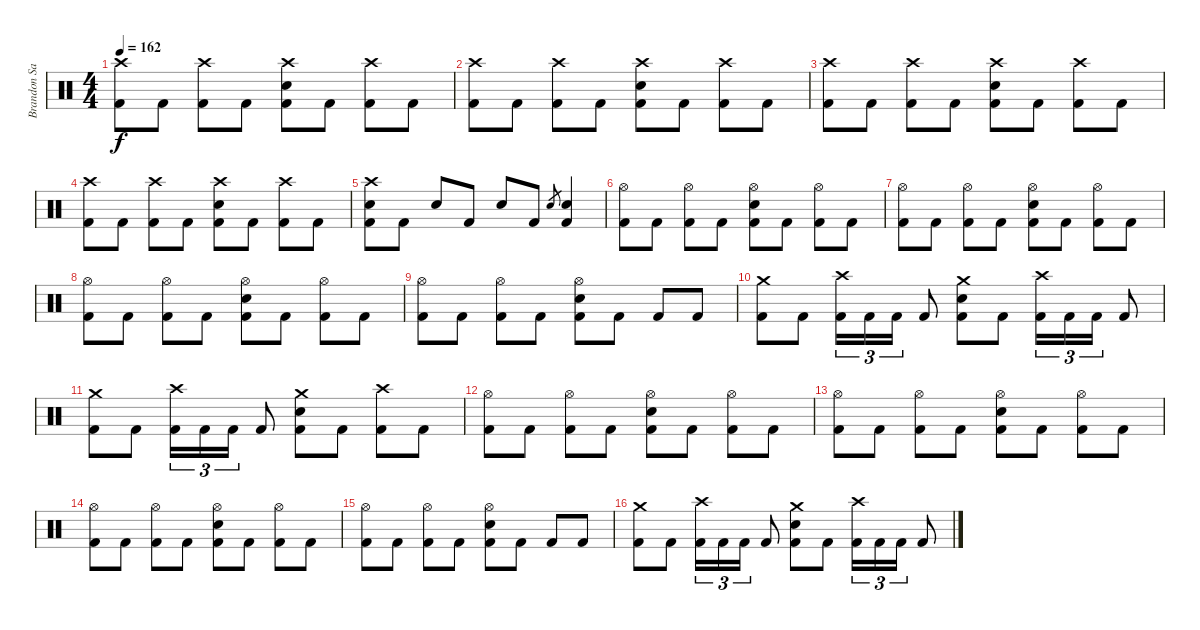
\track ("Brandon Saller" "Brandon Sa") {instrument percussion}
\staff {score}
\articulation defaults
\ts (4 4)
\tempo 162
\clef neutral
\ks c
("Crash high (hit)" "Kick (hit) 2").8{dy f} "Kick (hit) 2".8 ("Crash high (hit)" "Kick (hit) 2").8 "Kick (hit) 2".8 ("Crash high (hit)" "Electric Snare (hit)" "Kick (hit) 2").8 "Kick (hit) 2".8 ("Crash high (hit)" "Kick (hit) 2").8 "Kick (hit) 2".8 |
("Crash high (hit)" "Kick (hit) 2").8 "Kick (hit) 2".8 ("Crash high (hit)" "Kick (hit) 2").8 "Kick (hit) 2".8 ("Crash high (hit)" "Electric Snare (hit)" "Kick (hit) 2").8 "Kick (hit) 2".8 ("Crash high (hit)" "Kick (hit) 2").8 "Kick (hit) 2".8 |
("Crash high (hit)" "Kick (hit) 2").8 "Kick (hit) 2".8 ("Crash high (hit)" "Kick (hit) 2").8 "Kick (hit) 2".8 ("Crash high (hit)" "Electric Snare (hit)" "Kick (hit) 2").8 "Kick (hit) 2".8 ("Crash high (hit)" "Kick (hit) 2").8 "Kick (hit) 2".8 |
("Crash high (hit)" "Kick (hit) 2").8 "Kick (hit) 2".8 ("Crash high (hit)" "Kick (hit) 2").8 "Kick (hit) 2".8 ("Crash high (hit)" "Electric Snare (hit)" "Kick (hit) 2").8 "Kick (hit) 2".8 ("Crash high (hit)" "Kick (hit) 2").8 "Kick (hit) 2".8 |
("Crash high (hit)" "Electric Snare (hit)" "Kick (hit) 2").8 "Kick (hit) 2".8 "Electric Snare (hit)".8 "Kick (hit) 2".8 "Electric Snare (hit)".8 "Kick (hit) 2".8 "Electric Snare (hit)".8{gr} ("Electric Snare (hit)" "Kick (hit) 2").4 |
("Hi-Hat (open)" "Kick (hit) 2").8 "Kick (hit) 2".8 ("Hi-Hat (open)" "Kick (hit) 2").8 "Kick (hit) 2".8 ("Hi-Hat (open)" "Electric Snare (hit)" "Kick (hit) 2").8 "Kick (hit) 2".8 ("Hi-Hat (open)" "Kick (hit) 2").8 "Kick (hit) 2".8 |
("Hi-Hat (open)" "Kick (hit) 2").8 "Kick (hit) 2".8 ("Hi-Hat (open)" "Kick (hit) 2").8 "Kick (hit) 2".8 ("Hi-Hat (open)" "Electric Snare (hit)" "Kick (hit) 2").8 "Kick (hit) 2".8 ("Hi-Hat (open)" "Kick (hit) 2").8 "Kick (hit) 2".8 |
("Hi-Hat (open)" "Kick (hit) 2").8 "Kick (hit) 2".8 ("Hi-Hat (open)" "Kick (hit) 2").8 "Kick (hit) 2".8 ("Hi-Hat (open)" "Electric Snare (hit)" "Kick (hit) 2").8 "Kick (hit) 2".8 ("Hi-Hat (open)" "Kick (hit) 2").8 "Kick (hit) 2".8 |
("Hi-Hat (open)" "Kick (hit) 2").8 "Kick (hit) 2".8 ("Hi-Hat (open)" "Kick (hit) 2").8 "Kick (hit) 2".8 ("Hi-Hat (open)" "Electric Snare (hit)" "Kick (hit) 2").8 "Kick (hit) 2".8 "Kick (hit) 2".8 "Kick (hit) 2".8 |
("Crash medium (hit)" "Kick (hit) 2").8 "Kick (hit) 2".8 ("Crash high (hit)" "Kick (hit) 2").16{tu (3 2)} "Kick (hit) 2".16{tu (3 2)} "Kick (hit) 2".16{tu (3 2)} "Kick (hit) 2".8 ("Crash medium (hit)" "Electric Snare (hit)" "Kick (hit) 2").8 "Kick (hit) 2".8 ("Crash high (hit)" "Kick (hit) 2").16{tu (3 2)} "Kick (hit) 2".16{tu (3 2)} "Kick (hit) 2".16{tu (3 2)} "Kick (hit) 2".8 |
("Crash medium (hit)" "Kick (hit) 2").8 "Kick (hit) 2".8 ("Crash high (hit)" "Kick (hit) 2").16{tu (3 2)} "Kick (hit) 2".16{tu (3 2)} "Kick (hit) 2".16{tu (3 2)} "Kick (hit) 2".8 ("Crash medium (hit)" "Electric Snare (hit)" "Kick (hit) 2").8 "Kick (hit) 2".8 ("Crash high (hit)" "Kick (hit) 2").8 "Kick (hit) 2".8 |
("Hi-Hat (open)" "Kick (hit) 2").8 "Kick (hit) 2".8 ("Hi-Hat (open)" "Kick (hit) 2").8 "Kick (hit) 2".8 ("Hi-Hat (open)" "Electric Snare (hit)" "Kick (hit) 2").8 "Kick (hit) 2".8 ("Hi-Hat (open)" "Kick (hit) 2").8 "Kick (hit) 2".8 |
("Hi-Hat (open)" "Kick (hit) 2").8 "Kick (hit) 2".8 ("Hi-Hat (open)" "Kick (hit) 2").8 "Kick (hit) 2".8 ("Hi-Hat (open)" "Electric Snare (hit)" "Kick (hit) 2").8 "Kick (hit) 2".8 ("Hi-Hat (open)" "Kick (hit) 2").8 "Kick (hit) 2".8 |
("Hi-Hat (open)" "Kick (hit) 2").8 "Kick (hit) 2".8 ("Hi-Hat (open)" "Kick (hit) 2").8 "Kick (hit) 2".8 ("Hi-Hat (open)" "Electric Snare (hit)" "Kick (hit) 2").8 "Kick (hit) 2".8 ("Hi-Hat (open)" "Kick (hit) 2").8 "Kick (hit) 2".8 |
("Hi-Hat (open)" "Kick (hit) 2").8 "Kick (hit) 2".8 ("Hi-Hat (open)" "Kick (hit) 2").8 "Kick (hit) 2".8 ("Hi-Hat (open)" "Electric Snare (hit)" "Kick (hit) 2").8 "Kick (hit) 2".8 "Kick (hit) 2".8 "Kick (hit) 2".8 |
("Crash medium (hit)" "Kick (hit) 2").8 "Kick (hit) 2".8 ("Crash high (hit)" "Kick (hit) 2").16{tu (3 2)} "Kick (hit) 2".16{tu (3 2)} "Kick (hit) 2".16{tu (3 2)} "Kick (hit) 2".8 ("Crash medium (hit)" "Electric Snare (hit)" "Kick (hit) 2").8 "Kick (hit) 2".8 ("Crash high (hit)" "Kick (hit) 2").16{tu (3 2)} "Kick (hit) 2".16{tu (3 2)} "Kick (hit) 2".16{tu (3 2)} "Kick (hit) 2".8
